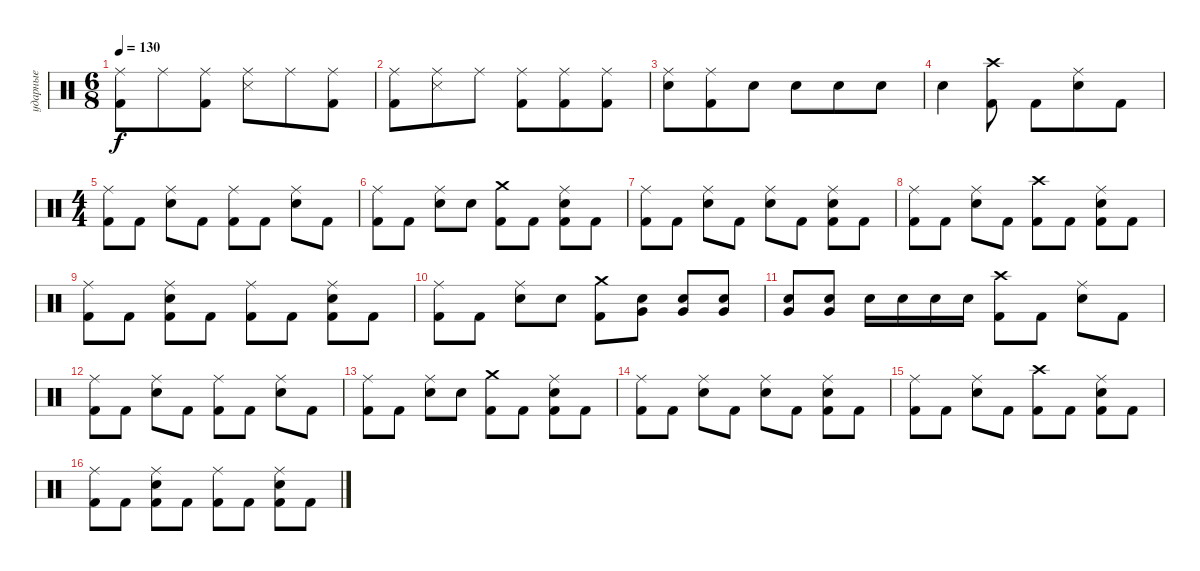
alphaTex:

\track ("ударные" "ударные") {instrument percussion}
\staff {score}
\articulation defaults
\ts (6 8)
\tempo 130
\clef neutral
\ks c
("Ride (middle)" "Kick (hit) 2").8{dy f} "Ride (middle)".8 ("Ride (middle)" "Kick (hit) 2").8 ("Snare (side stick) 3" "Ride (middle)").8 "Ride (middle)".8 ("Kick (hit) 2" "Ride (middle)").8 |
("Ride (middle)" "Kick (hit) 2").8 ("Snare (side stick) 3" "Ride (middle)").8 "Ride (middle)".8 ("Kick (hit) 2" "Ride (middle)").8 ("Kick (hit) 2" "Ride (middle)").8 ("Ride (middle)" "Kick (hit) 2").8 |
("Ride (middle)" "Electric Snare (hit)").8 ("Kick (hit) 2" "Ride (middle)").8 "Electric Snare (hit)".8 "Electric Snare (hit)".8 "Electric Snare (hit)".8 "Electric Snare (hit)".8 |
"Electric Snare (hit)".4 ("Crash high (hit)" "Kick (hit) 2").8 "Kick (hit) 2".8 ("Ride (middle)" "Electric Snare (hit)").8 "Kick (hit) 2".8 |
\ts (4 4)
("Ride (middle)" "Kick (hit) 2").8 "Kick (hit) 2".8 ("Ride (middle)" "Electric Snare (hit)").8 "Kick (hit) 2".8 ("Kick (hit) 2" "Ride (middle)").8 "Kick (hit) 2".8 ("Ride (middle)" "Electric Snare (hit)").8 "Kick (hit) 2".8 |
("Kick (hit) 2" "Ride (middle)").8 "Kick (hit) 2".8 ("Electric Snare (hit)" "Ride (middle)").8 "Electric Snare (hit)".8 ("Crash medium (hit)" "Kick (hit) 2").8 "Kick (hit) 2".8 ("Ride (middle)" "Kick (hit) 2" "Electric Snare (hit)").8 "Kick (hit) 2".8 |
("Kick (hit) 2" "Ride (middle)").8 "Kick (hit) 2".8 ("Ride (middle)" "Electric Snare (hit)").8 "Kick (hit) 2".8 ("Ride (middle)" "Electric Snare (hit)").8 "Kick (hit) 2".8 ("Ride (middle)" "Electric Snare (hit)" "Kick (hit) 2").8 "Kick (hit) 2".8 |
("Ride (middle)" "Kick (hit) 2").8 "Kick (hit) 2".8 ("Ride (middle)" "Electric Snare (hit)").8 "Kick (hit) 2".8 ("Kick (hit) 2" "Crash high (hit)").8 "Kick (hit) 2".8 ("Ride (middle)" "Kick (hit) 2" "Electric Snare (hit)").8 "Kick (hit) 2".8 |
("Ride (middle)" "Kick (hit) 2").8 "Kick (hit) 2".8 ("Kick (hit) 2" "Electric Snare (hit)" "Ride (middle)").8 "Kick (hit) 2".8 ("Ride (middle)" "Kick (hit) 2").8 "Kick (hit) 2".8 ("Kick (hit) 2" "Electric Snare (hit)" "Ride (middle)").8 "Kick (hit) 2".8 |
("Kick (hit) 2" "Ride (middle)").8 "Kick (hit) 2".8 ("Ride (middle)" "Electric Snare (hit)").8 "Electric Snare (hit)".8 ("Kick (hit) 2" "Crash medium (hit)").8 ("Electric Snare (hit)" "Very Low Tom (hit)").8 ("Very Low Tom (hit)" "Electric Snare (hit)").8 ("Electric Snare (hit)" "Very Low Tom (hit)").8 |
("Electric Snare (hit)" "Very Low Tom (hit)").8 ("Very Low Tom (hit)" "Electric Snare (hit)").8 "Electric Snare (hit)".16 "Electric Snare (hit)".16 "Electric Snare (hit)".16 "Electric Snare (hit)".16 ("Crash high (hit)" "Kick (hit) 2").8 "Kick (hit) 2".8 ("Ride (middle)" "Electric Snare (hit)").8 "Kick (hit) 2".8 |
("Ride (middle)" "Kick (hit) 2").8 "Kick (hit) 2".8 ("Ride (middle)" "Electric Snare (hit)").8 "Kick (hit) 2".8 ("Kick (hit) 2" "Ride (middle)").8 "Kick (hit) 2".8 ("Ride (middle)" "Electric Snare (hit)").8 "Kick (hit) 2".8 |
("Kick (hit) 2" "Ride (middle)").8 "Kick (hit) 2".8 ("Electric Snare (hit)" "Ride (middle)").8 "Electric Snare (hit)".8 ("Crash medium (hit)" "Kick (hit) 2").8 "Kick (hit) 2".8 ("Ride (middle)" "Kick (hit) 2" "Electric Snare (hit)").8 "Kick (hit) 2".8 |
("Kick (hit) 2" "Ride (middle)").8 "Kick (hit) 2".8 ("Ride (middle)" "Electric Snare (hit)").8 "Kick (hit) 2".8 ("Ride (middle)" "Electric Snare (hit)").8 "Kick (hit) 2".8 ("Ride (middle)" "Electric Snare (hit)" "Kick (hit) 2").8 "Kick (hit) 2".8 |
("Ride (middle)" "Kick (hit) 2").8 "Kick (hit) 2".8 ("Ride (middle)" "Electric Snare (hit)").8 "Kick (hit) 2".8 ("Kick (hit) 2" "Crash high (hit)").8 "Kick (hit) 2".8 ("Ride (middle)" "Kick (hit) 2" "Electric Snare (hit)").8 "Kick (hit) 2".8 |
("Ride (middle)" "Kick (hit) 2").8 "Kick (hit) 2".8 ("Kick (hit) 2" "Electric Snare (hit)" "Ride (middle)").8 "Kick (hit) 2".8 ("Ride (middle)" "Kick (hit) 2").8 "Kick (hit) 2".8 ("Kick (hit) 2" "Electric Snare (hit)" "Ride (middle)").8 "Kick (hit) 2".8
